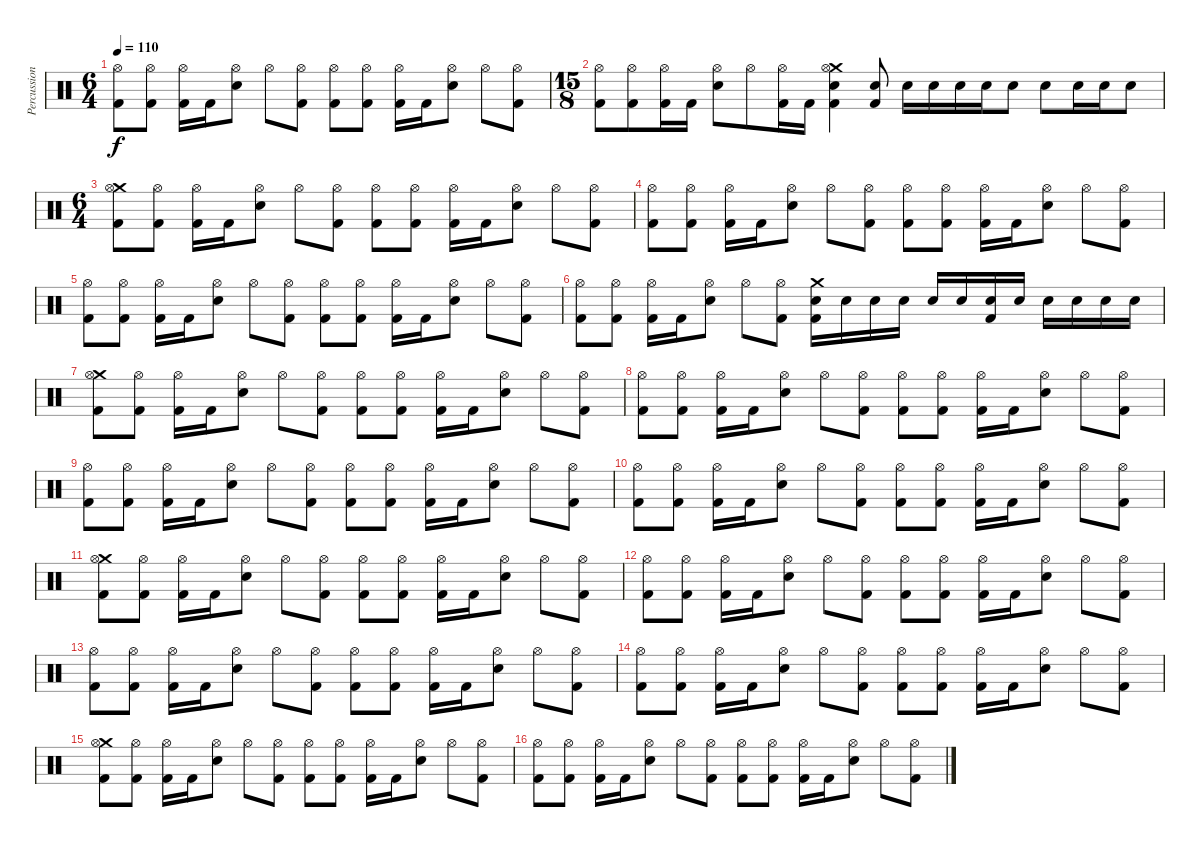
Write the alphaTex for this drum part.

\track ("Percussion" "Percussion") {instrument percussion}
\staff {score}
\articulation defaults
\ts (6 4)
\tempo 110
\clef neutral
\ks c
("Hi-Hat (open)" "Kick (hit) 2").8{dy f} ("Hi-Hat (open)" "Kick (hit) 2").8 ("Hi-Hat (open)" "Kick (hit) 2").16 "Kick (hit) 2".16 ("Hi-Hat (open)" "Electric Snare (hit)").8 "Hi-Hat (open)".8 ("Hi-Hat (open)" "Kick (hit) 2").8 ("Hi-Hat (open)" "Kick (hit) 2").8 ("Hi-Hat (open)" "Kick (hit) 2").8 ("Hi-Hat (open)" "Kick (hit) 2").16 "Kick (hit) 2".16 ("Hi-Hat (open)" "Electric Snare (hit)").8 "Hi-Hat (open)".8 ("Hi-Hat (open)" "Kick (hit) 2").8 |
\ts (15 8)
("Hi-Hat (open)" "Kick (hit) 2").8 ("Hi-Hat (open)" "Kick (hit) 2").8 ("Hi-Hat (open)" "Kick (hit) 2").16 "Kick (hit) 2".16 ("Hi-Hat (open)" "Electric Snare (hit)").8 "Hi-Hat (open)".8 ("Hi-Hat (open)" "Kick (hit) 2").16 "Kick (hit) 2".16 ("Crash medium (hit)" "Hi-Hat (open)" "Electric Snare (hit)" "Kick (hit) 2").4 ("Electric Snare (hit)" "Kick (hit) 2").8 "Electric Snare (hit)".16 "Electric Snare (hit)".16 "Electric Snare (hit)".16 "Electric Snare (hit)".16 "Electric Snare (hit)".8 "Electric Snare (hit)".8 "Electric Snare (hit)".16 "Electric Snare (hit)".16 "Electric Snare (hit)".8 |
\ts (6 4)
("Crash medium (hit)" "Hi-Hat (open)" "Kick (hit) 2").8 ("Hi-Hat (open)" "Kick (hit) 2").8 ("Hi-Hat (open)" "Kick (hit) 2").16 "Kick (hit) 2".16 ("Hi-Hat (open)" "Electric Snare (hit)").8 "Hi-Hat (open)".8 ("Hi-Hat (open)" "Kick (hit) 2").8 ("Hi-Hat (open)" "Kick (hit) 2").8 ("Hi-Hat (open)" "Kick (hit) 2").8 ("Hi-Hat (open)" "Kick (hit) 2").16 "Kick (hit) 2".16 ("Hi-Hat (open)" "Electric Snare (hit)").8 "Hi-Hat (open)".8 ("Hi-Hat (open)" "Kick (hit) 2").8 |
("Hi-Hat (open)" "Kick (hit) 2").8 ("Hi-Hat (open)" "Kick (hit) 2").8 ("Hi-Hat (open)" "Kick (hit) 2").16 "Kick (hit) 2".16 ("Hi-Hat (open)" "Electric Snare (hit)").8 "Hi-Hat (open)".8 ("Hi-Hat (open)" "Kick (hit) 2").8 ("Hi-Hat (open)" "Kick (hit) 2").8 ("Hi-Hat (open)" "Kick (hit) 2").8 ("Hi-Hat (open)" "Kick (hit) 2").16 "Kick (hit) 2".16 ("Hi-Hat (open)" "Electric Snare (hit)").8 "Hi-Hat (open)".8 ("Hi-Hat (open)" "Kick (hit) 2").8 |
("Hi-Hat (open)" "Kick (hit) 2").8 ("Hi-Hat (open)" "Kick (hit) 2").8 ("Hi-Hat (open)" "Kick (hit) 2").16 "Kick (hit) 2".16 ("Hi-Hat (open)" "Electric Snare (hit)").8 "Hi-Hat (open)".8 ("Hi-Hat (open)" "Kick (hit) 2").8 ("Hi-Hat (open)" "Kick (hit) 2").8 ("Hi-Hat (open)" "Kick (hit) 2").8 ("Hi-Hat (open)" "Kick (hit) 2").16 "Kick (hit) 2".16 ("Hi-Hat (open)" "Electric Snare (hit)").8 "Hi-Hat (open)".8 ("Hi-Hat (open)" "Kick (hit) 2").8 |
("Hi-Hat (open)" "Kick (hit) 2").8 ("Hi-Hat (open)" "Kick (hit) 2").8 ("Hi-Hat (open)" "Kick (hit) 2").16 "Kick (hit) 2".16 ("Hi-Hat (open)" "Electric Snare (hit)").8 "Hi-Hat (open)".8 ("Hi-Hat (open)" "Kick (hit) 2").8 ("Crash medium (hit)" "Electric Snare (hit)" "Kick (hit) 2").16 "Electric Snare (hit)".16 "Electric Snare (hit)".16 "Electric Snare (hit)".16 "Electric Snare (hit)".16 "Electric Snare (hit)".16 ("Electric Snare (hit)" "Kick (hit) 2").16 "Electric Snare (hit)".16 "Electric Snare (hit)".16 "Electric Snare (hit)".16 "Electric Snare (hit)".16 "Electric Snare (hit)".16 |
("Crash medium (hit)" "Hi-Hat (open)" "Kick (hit) 2").8 ("Hi-Hat (open)" "Kick (hit) 2").8 ("Hi-Hat (open)" "Kick (hit) 2").16 "Kick (hit) 2".16 ("Hi-Hat (open)" "Electric Snare (hit)").8 "Hi-Hat (open)".8 ("Hi-Hat (open)" "Kick (hit) 2").8 ("Hi-Hat (open)" "Kick (hit) 2").8 ("Hi-Hat (open)" "Kick (hit) 2").8 ("Hi-Hat (open)" "Kick (hit) 2").16 "Kick (hit) 2".16 ("Hi-Hat (open)" "Electric Snare (hit)").8 "Hi-Hat (open)".8 ("Hi-Hat (open)" "Kick (hit) 2").8 |
("Hi-Hat (open)" "Kick (hit) 2").8 ("Hi-Hat (open)" "Kick (hit) 2").8 ("Hi-Hat (open)" "Kick (hit) 2").16 "Kick (hit) 2".16 ("Hi-Hat (open)" "Electric Snare (hit)").8 "Hi-Hat (open)".8 ("Hi-Hat (open)" "Kick (hit) 2").8 ("Hi-Hat (open)" "Kick (hit) 2").8 ("Hi-Hat (open)" "Kick (hit) 2").8 ("Hi-Hat (open)" "Kick (hit) 2").16 "Kick (hit) 2".16 ("Hi-Hat (open)" "Electric Snare (hit)").8 "Hi-Hat (open)".8 ("Hi-Hat (open)" "Kick (hit) 2").8 |
("Hi-Hat (open)" "Kick (hit) 2").8 ("Hi-Hat (open)" "Kick (hit) 2").8 ("Hi-Hat (open)" "Kick (hit) 2").16 "Kick (hit) 2".16 ("Hi-Hat (open)" "Electric Snare (hit)").8 "Hi-Hat (open)".8 ("Hi-Hat (open)" "Kick (hit) 2").8 ("Hi-Hat (open)" "Kick (hit) 2").8 ("Hi-Hat (open)" "Kick (hit) 2").8 ("Hi-Hat (open)" "Kick (hit) 2").16 "Kick (hit) 2".16 ("Hi-Hat (open)" "Electric Snare (hit)").8 "Hi-Hat (open)".8 ("Hi-Hat (open)" "Kick (hit) 2").8 |
("Hi-Hat (open)" "Kick (hit) 2").8 ("Hi-Hat (open)" "Kick (hit) 2").8 ("Hi-Hat (open)" "Kick (hit) 2").16 "Kick (hit) 2".16 ("Hi-Hat (open)" "Electric Snare (hit)").8 "Hi-Hat (open)".8 ("Hi-Hat (open)" "Kick (hit) 2").8 ("Hi-Hat (open)" "Kick (hit) 2").8 ("Hi-Hat (open)" "Kick (hit) 2").8 ("Hi-Hat (open)" "Kick (hit) 2").16 "Kick (hit) 2".16 ("Hi-Hat (open)" "Electric Snare (hit)").8 "Hi-Hat (open)".8 ("Hi-Hat (open)" "Kick (hit) 2").8 |
("Crash medium (hit)" "Hi-Hat (open)" "Kick (hit) 2").8 ("Hi-Hat (open)" "Kick (hit) 2").8 ("Hi-Hat (open)" "Kick (hit) 2").16 "Kick (hit) 2".16 ("Hi-Hat (open)" "Electric Snare (hit)").8 "Hi-Hat (open)".8 ("Hi-Hat (open)" "Kick (hit) 2").8 ("Hi-Hat (open)" "Kick (hit) 2").8 ("Hi-Hat (open)" "Kick (hit) 2").8 ("Hi-Hat (open)" "Kick (hit) 2").16 "Kick (hit) 2".16 ("Hi-Hat (open)" "Electric Snare (hit)").8 "Hi-Hat (open)".8 ("Hi-Hat (open)" "Kick (hit) 2").8 |
("Hi-Hat (open)" "Kick (hit) 2").8 ("Hi-Hat (open)" "Kick (hit) 2").8 ("Hi-Hat (open)" "Kick (hit) 2").16 "Kick (hit) 2".16 ("Hi-Hat (open)" "Electric Snare (hit)").8 "Hi-Hat (open)".8 ("Hi-Hat (open)" "Kick (hit) 2").8 ("Hi-Hat (open)" "Kick (hit) 2").8 ("Hi-Hat (open)" "Kick (hit) 2").8 ("Hi-Hat (open)" "Kick (hit) 2").16 "Kick (hit) 2".16 ("Hi-Hat (open)" "Electric Snare (hit)").8 "Hi-Hat (open)".8 ("Hi-Hat (open)" "Kick (hit) 2").8 |
("Hi-Hat (open)" "Kick (hit) 2").8 ("Hi-Hat (open)" "Kick (hit) 2").8 ("Hi-Hat (open)" "Kick (hit) 2").16 "Kick (hit) 2".16 ("Hi-Hat (open)" "Electric Snare (hit)").8 "Hi-Hat (open)".8 ("Hi-Hat (open)" "Kick (hit) 2").8 ("Hi-Hat (open)" "Kick (hit) 2").8 ("Hi-Hat (open)" "Kick (hit) 2").8 ("Hi-Hat (open)" "Kick (hit) 2").16 "Kick (hit) 2".16 ("Hi-Hat (open)" "Electric Snare (hit)").8 "Hi-Hat (open)".8 ("Hi-Hat (open)" "Kick (hit) 2").8 |
("Hi-Hat (open)" "Kick (hit) 2").8 ("Hi-Hat (open)" "Kick (hit) 2").8 ("Hi-Hat (open)" "Kick (hit) 2").16 "Kick (hit) 2".16 ("Hi-Hat (open)" "Electric Snare (hit)").8 "Hi-Hat (open)".8 ("Hi-Hat (open)" "Kick (hit) 2").8 ("Hi-Hat (open)" "Kick (hit) 2").8 ("Hi-Hat (open)" "Kick (hit) 2").8 ("Hi-Hat (open)" "Kick (hit) 2").16 "Kick (hit) 2".16 ("Hi-Hat (open)" "Electric Snare (hit)").8 "Hi-Hat (open)".8 ("Hi-Hat (open)" "Kick (hit) 2").8 |
("Crash medium (hit)" "Hi-Hat (open)" "Kick (hit) 2").8 ("Hi-Hat (open)" "Kick (hit) 2").8 ("Hi-Hat (open)" "Kick (hit) 2").16 "Kick (hit) 2".16 ("Hi-Hat (open)" "Electric Snare (hit)").8 "Hi-Hat (open)".8 ("Hi-Hat (open)" "Kick (hit) 2").8 ("Hi-Hat (open)" "Kick (hit) 2").8 ("Hi-Hat (open)" "Kick (hit) 2").8 ("Hi-Hat (open)" "Kick (hit) 2").16 "Kick (hit) 2".16 ("Hi-Hat (open)" "Electric Snare (hit)").8 "Hi-Hat (open)".8 ("Hi-Hat (open)" "Kick (hit) 2").8 |
("Hi-Hat (open)" "Kick (hit) 2").8 ("Hi-Hat (open)" "Kick (hit) 2").8 ("Hi-Hat (open)" "Kick (hit) 2").16 "Kick (hit) 2".16 ("Hi-Hat (open)" "Electric Snare (hit)").8 "Hi-Hat (open)".8 ("Hi-Hat (open)" "Kick (hit) 2").8 ("Hi-Hat (open)" "Kick (hit) 2").8 ("Hi-Hat (open)" "Kick (hit) 2").8 ("Hi-Hat (open)" "Kick (hit) 2").16 "Kick (hit) 2".16 ("Hi-Hat (open)" "Electric Snare (hit)").8 "Hi-Hat (open)".8 ("Hi-Hat (open)" "Kick (hit) 2").8
